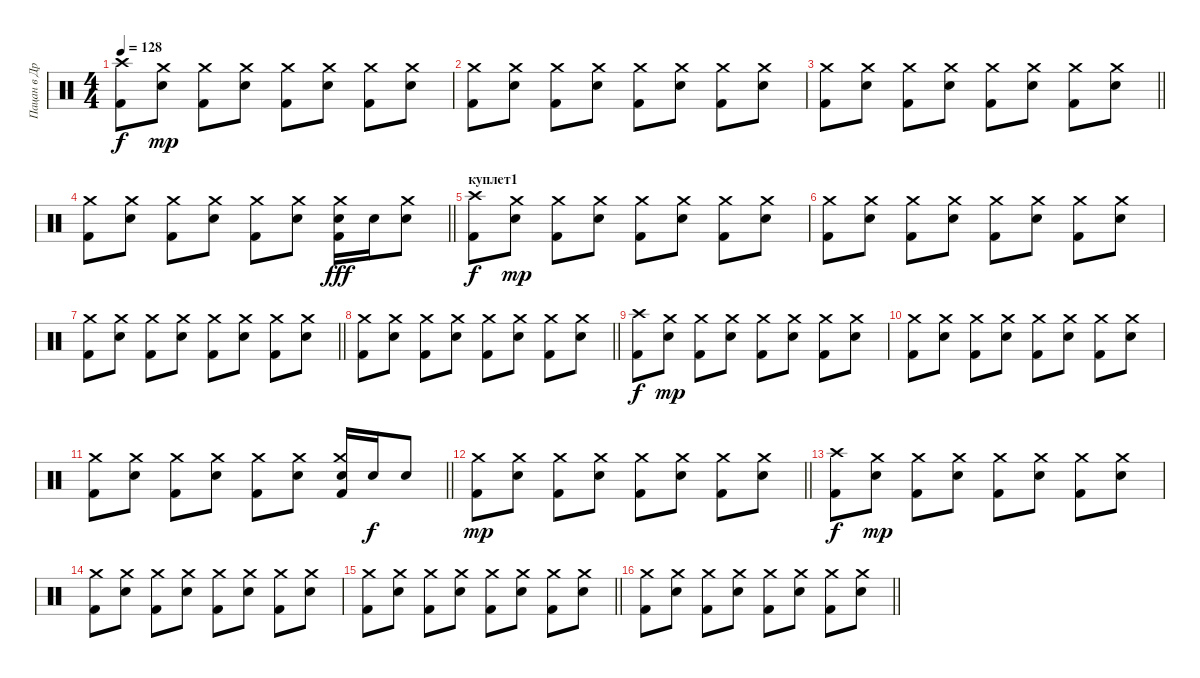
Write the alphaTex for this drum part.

\track ("Пацан в Дредах" "Пацан в Др") {instrument percussion}
\staff {score}
\articulation defaults
\ts (4 4)
\tempo 128
\clef neutral
\ks c
("Crash high (hit)" "Kick (hit) 2").8{dy f} ("Crash medium (hit)" "Electric Snare (hit)").8{dy mp} ("Crash medium (hit)" "Kick (hit) 2").8 ("Crash medium (hit)" "Electric Snare (hit)").8 ("Crash medium (hit)" "Kick (hit) 2").8 ("Crash medium (hit)" "Electric Snare (hit)").8 ("Crash medium (hit)" "Kick (hit) 2").8 ("Crash medium (hit)" "Electric Snare (hit)").8 |
("Crash medium (hit)" "Kick (hit) 2").8 ("Crash medium (hit)" "Electric Snare (hit)").8 ("Crash medium (hit)" "Kick (hit) 2").8 ("Crash medium (hit)" "Electric Snare (hit)").8 ("Crash medium (hit)" "Kick (hit) 2").8 ("Crash medium (hit)" "Electric Snare (hit)").8 ("Crash medium (hit)" "Kick (hit) 2").8 ("Crash medium (hit)" "Electric Snare (hit)").8 |
\barLineRight lightlight
("Crash medium (hit)" "Kick (hit) 2").8 ("Crash medium (hit)" "Electric Snare (hit)").8 ("Crash medium (hit)" "Kick (hit) 2").8 ("Crash medium (hit)" "Electric Snare (hit)").8 ("Crash medium (hit)" "Kick (hit) 2").8 ("Crash medium (hit)" "Electric Snare (hit)").8 ("Crash medium (hit)" "Kick (hit) 2").8 ("Crash medium (hit)" "Electric Snare (hit)").8 |
\barLineRight lightlight
("Crash medium (hit)" "Kick (hit) 2").8 ("Crash medium (hit)" "Electric Snare (hit)").8 ("Crash medium (hit)" "Kick (hit) 2").8 ("Crash medium (hit)" "Electric Snare (hit)").8 ("Crash medium (hit)" "Kick (hit) 2").8 ("Crash medium (hit)" "Electric Snare (hit)").8 ("Crash medium (hit)" "Electric Snare (hit)" "Kick (hit) 2").16{dy fff} "Electric Snare (hit)".16 ("Crash medium (hit)" "Electric Snare (hit)").8 |
\section ("" "куплет1")
("Crash high (hit)" "Kick (hit) 2").8{dy f} ("Crash medium (hit)" "Electric Snare (hit)").8{dy mp} ("Crash medium (hit)" "Kick (hit) 2").8 ("Crash medium (hit)" "Electric Snare (hit)").8 ("Crash medium (hit)" "Kick (hit) 2").8 ("Crash medium (hit)" "Electric Snare (hit)").8 ("Crash medium (hit)" "Kick (hit) 2").8 ("Crash medium (hit)" "Electric Snare (hit)").8 |
("Crash medium (hit)" "Kick (hit) 2").8 ("Crash medium (hit)" "Electric Snare (hit)").8 ("Crash medium (hit)" "Kick (hit) 2").8 ("Crash medium (hit)" "Electric Snare (hit)").8 ("Crash medium (hit)" "Kick (hit) 2").8 ("Crash medium (hit)" "Electric Snare (hit)").8 ("Crash medium (hit)" "Kick (hit) 2").8 ("Crash medium (hit)" "Electric Snare (hit)").8 |
\barLineRight lightlight
("Crash medium (hit)" "Kick (hit) 2").8 ("Crash medium (hit)" "Electric Snare (hit)").8 ("Crash medium (hit)" "Kick (hit) 2").8 ("Crash medium (hit)" "Electric Snare (hit)").8 ("Crash medium (hit)" "Kick (hit) 2").8 ("Crash medium (hit)" "Electric Snare (hit)").8 ("Crash medium (hit)" "Kick (hit) 2").8 ("Crash medium (hit)" "Electric Snare (hit)").8 |
\barLineRight lightlight
("Crash medium (hit)" "Kick (hit) 2").8 ("Crash medium (hit)" "Electric Snare (hit)").8 ("Crash medium (hit)" "Kick (hit) 2").8 ("Crash medium (hit)" "Electric Snare (hit)").8 ("Crash medium (hit)" "Kick (hit) 2").8 ("Crash medium (hit)" "Electric Snare (hit)").8 ("Crash medium (hit)" "Kick (hit) 2").8 ("Crash medium (hit)" "Electric Snare (hit)").8 |
("Crash high (hit)" "Kick (hit) 2").8{dy f} ("Crash medium (hit)" "Electric Snare (hit)").8{dy mp} ("Crash medium (hit)" "Kick (hit) 2").8 ("Crash medium (hit)" "Electric Snare (hit)").8 ("Crash medium (hit)" "Kick (hit) 2").8 ("Crash medium (hit)" "Electric Snare (hit)").8 ("Crash medium (hit)" "Kick (hit) 2").8 ("Crash medium (hit)" "Electric Snare (hit)").8 |
("Crash medium (hit)" "Kick (hit) 2").8 ("Crash medium (hit)" "Electric Snare (hit)").8 ("Crash medium (hit)" "Kick (hit) 2").8 ("Crash medium (hit)" "Electric Snare (hit)").8 ("Crash medium (hit)" "Kick (hit) 2").8 ("Crash medium (hit)" "Electric Snare (hit)").8 ("Crash medium (hit)" "Kick (hit) 2").8 ("Crash medium (hit)" "Electric Snare (hit)").8 |
\barLineRight lightlight
("Crash medium (hit)" "Kick (hit) 2").8 ("Crash medium (hit)" "Electric Snare (hit)").8 ("Crash medium (hit)" "Kick (hit) 2").8 ("Crash medium (hit)" "Electric Snare (hit)").8 ("Crash medium (hit)" "Kick (hit) 2").8 ("Crash medium (hit)" "Electric Snare (hit)").8 ("Crash medium (hit)" "Electric Snare (hit)" "Kick (hit) 2").16 "Electric Snare (hit)".16{dy f} "Electric Snare (hit)".8 |
\barLineRight lightlight
("Crash medium (hit)" "Kick (hit) 2").8{dy mp} ("Crash medium (hit)" "Electric Snare (hit)").8 ("Crash medium (hit)" "Kick (hit) 2").8 ("Crash medium (hit)" "Electric Snare (hit)").8 ("Crash medium (hit)" "Kick (hit) 2").8 ("Crash medium (hit)" "Electric Snare (hit)").8 ("Crash medium (hit)" "Kick (hit) 2").8 ("Crash medium (hit)" "Electric Snare (hit)").8 |
("Crash high (hit)" "Kick (hit) 2").8{dy f} ("Crash medium (hit)" "Electric Snare (hit)").8{dy mp} ("Crash medium (hit)" "Kick (hit) 2").8 ("Crash medium (hit)" "Electric Snare (hit)").8 ("Crash medium (hit)" "Kick (hit) 2").8 ("Crash medium (hit)" "Electric Snare (hit)").8 ("Crash medium (hit)" "Kick (hit) 2").8 ("Crash medium (hit)" "Electric Snare (hit)").8 |
("Crash medium (hit)" "Kick (hit) 2").8 ("Crash medium (hit)" "Electric Snare (hit)").8 ("Crash medium (hit)" "Kick (hit) 2").8 ("Crash medium (hit)" "Electric Snare (hit)").8 ("Crash medium (hit)" "Kick (hit) 2").8 ("Crash medium (hit)" "Electric Snare (hit)").8 ("Crash medium (hit)" "Kick (hit) 2").8 ("Crash medium (hit)" "Electric Snare (hit)").8 |
\barLineRight lightlight
("Crash medium (hit)" "Kick (hit) 2").8 ("Crash medium (hit)" "Electric Snare (hit)").8 ("Crash medium (hit)" "Kick (hit) 2").8 ("Crash medium (hit)" "Electric Snare (hit)").8 ("Crash medium (hit)" "Kick (hit) 2").8 ("Crash medium (hit)" "Electric Snare (hit)").8 ("Crash medium (hit)" "Kick (hit) 2").8 ("Crash medium (hit)" "Electric Snare (hit)").8 |
\barLineRight lightlight
("Crash medium (hit)" "Kick (hit) 2").8 ("Crash medium (hit)" "Electric Snare (hit)").8 ("Crash medium (hit)" "Kick (hit) 2").8 ("Crash medium (hit)" "Electric Snare (hit)").8 ("Crash medium (hit)" "Kick (hit) 2").8 ("Crash medium (hit)" "Electric Snare (hit)").8 ("Crash medium (hit)" "Kick (hit) 2").8 ("Crash medium (hit)" "Electric Snare (hit)").8
